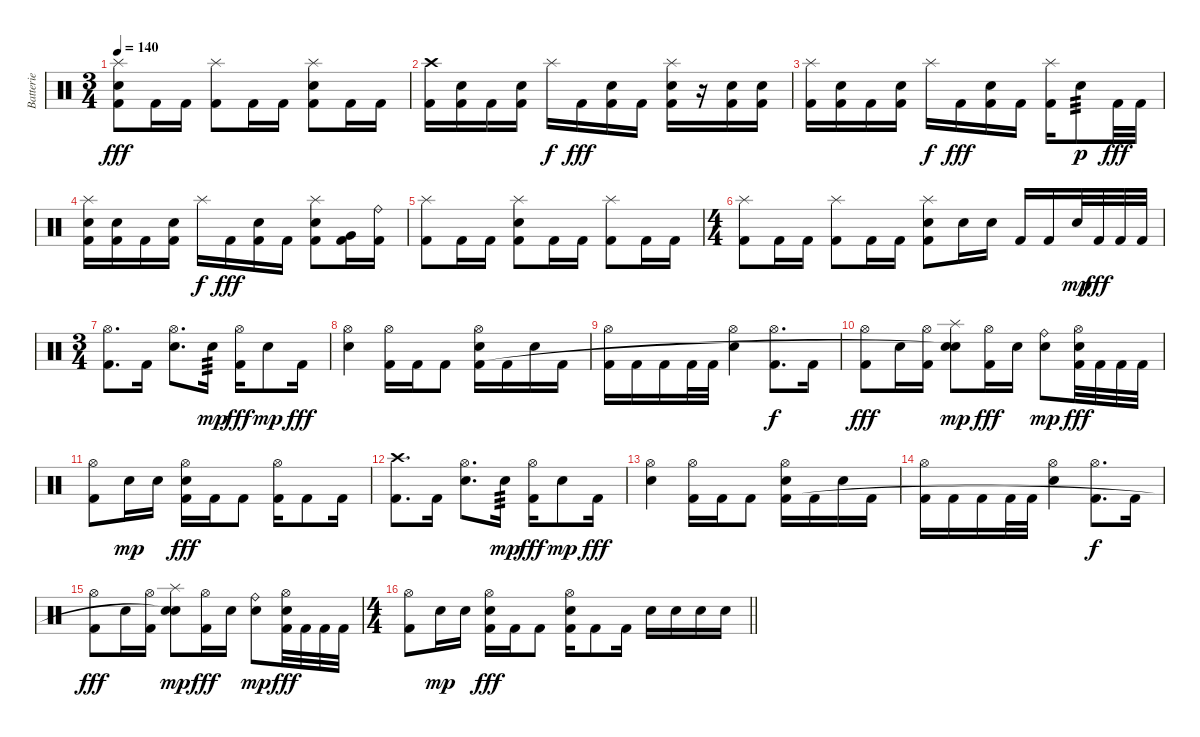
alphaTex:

\track ("Batterie" "Batterie") {instrument percussion}
\staff {score}
\articulation defaults
\ts (3 4)
\tempo 140
\clef neutral
\ks c
("Splash (hit)" "Electric Snare (hit)" "Kick (hit) 2").8{dy fff} "Kick (hit) 2".16 "Kick (hit) 2".16 ("Splash (hit)" "Kick (hit) 2").8 "Kick (hit) 2".16 "Kick (hit) 2".16 ("Splash (hit)" "Electric Snare (hit)" "Kick (hit) 2").8 "Kick (hit) 2".16 "Kick (hit) 2".16 |
("Crash high (hit)" "Kick (hit) 2").16 ("Electric Snare (hit)" "Kick (hit) 2").16 "Kick (hit) 2".16 ("Electric Snare (hit)" "Kick (hit) 2").16 "Splash (hit)".16{dy f} "Kick (hit) 2".16{dy fff} ("Electric Snare (hit)" "Kick (hit) 2").16 "Kick (hit) 2".16 ("Splash (hit)" "Electric Snare (hit)" "Kick (hit) 2").16 r.16 ("Electric Snare (hit)" "Kick (hit) 2").16 ("Electric Snare (hit)" "Kick (hit) 2").16 |
("Splash (hit)" "Kick (hit) 2").16 ("Electric Snare (hit)" "Kick (hit) 2").16 "Kick (hit) 2".16 ("Electric Snare (hit)" "Kick (hit) 2").16 "Splash (hit)".16{dy f} "Kick (hit) 2".16{dy fff} ("Electric Snare (hit)" "Kick (hit) 2").16 "Kick (hit) 2".16 ("Splash (hit)" "Kick (hit) 2").16 "Electric Snare (hit)".8{tp 3 dy p} "Kick (hit) 2".32{dy fff} "Kick (hit) 2".32 |
("Splash (hit)" "Electric Snare (hit)" "Kick (hit) 2").16 ("Electric Snare (hit)" "Kick (hit) 2").16 "Kick (hit) 2".16 ("Electric Snare (hit)" "Kick (hit) 2").16 "Splash (hit)".16{dy f} "Kick (hit) 2".16{dy fff} ("Electric Snare (hit)" "Kick (hit) 2").16 "Kick (hit) 2".16 ("Splash (hit)" "Electric Snare (hit)" "Kick (hit) 2").8 ("Very Low Tom (hit)" "Kick (hit) 2").16 ("Ride (bell)" "Kick (hit) 2").16 |
("Splash (hit)" "Kick (hit) 2").8 "Kick (hit) 2".16 "Kick (hit) 2".16 ("Splash (hit)" "Electric Snare (hit)" "Kick (hit) 2").8 "Kick (hit) 2".16 "Kick (hit) 2".16 ("Splash (hit)" "Kick (hit) 2").8 "Kick (hit) 2".16 "Kick (hit) 2".16 |
\ts (4 4)
("Splash (hit)" "Kick (hit) 2").8 "Kick (hit) 2".16 "Kick (hit) 2".16 ("Splash (hit)" "Kick (hit) 2").8 "Kick (hit) 2".16 "Kick (hit) 2".16 ("Splash (hit)" "Electric Snare (hit)" "Kick (hit) 2").8 "Electric Snare (hit)".16 "Electric Snare (hit)".16 "Kick (hit) 2".16 "Kick (hit) 2".16 "Electric Snare (hit)".32{dy mp} "Kick (hit) 2".32{dy fff} "Kick (hit) 2".32 "Kick (hit) 2".32 |
\ts (3 4)
("Hi-Hat (open)" "Kick (hit) 2").8{d} "Kick (hit) 2".16 ("Hi-Hat (open)" "Electric Snare (hit)").8{d} "Electric Snare (hit)".16{tp 3 dy mp} ("Hi-Hat (open)" "Kick (hit) 2").16{dy fff} "Electric Snare (hit)".8{dy mp} "Kick (hit) 2".16{dy fff} |
("Hi-Hat (open)" "Electric Snare (hit)").4 ("Hi-Hat (open)" "Kick (hit) 2").16 "Kick (hit) 2".16 "Kick (hit) 2".8 ("Hi-Hat (open)" "Electric Snare (hit)" "Kick (hit) 2").16 "Kick (hit) 2".16 "Electric Snare (hit)".16 "Kick (hit) 2".16 |
("Hi-Hat (open)" "Kick (hit) 2").16 "Kick (hit) 2".16 "Kick (hit) 2".16 "Kick (hit) 2".32 "Kick (hit) 2".32 ("Hi-Hat (open)" "Electric Snare (hit)").4 ("Hi-Hat (open)" "Kick (hit) 2").8{d dy f} "Kick (hit) 2".16 |
("Hi-Hat (open)" "Kick (hit) 2").8{dy fff} "Electric Snare (hit)".16 ("Hi-Hat (open)" "Kick (hit) 2").16 ("Splash (hit)" "Electric Snare (hit)" "Snare (hit)"{t}).8{dy mp} ("Hi-Hat (open)" "Kick (hit) 2").16{dy fff} "Electric Snare (hit)".16 ("Ride (bell)" "Electric Snare (hit)").8{dy mp} ("Hi-Hat (open)" "Electric Snare (hit)" "Kick (hit) 2").32{dy fff} "Kick (hit) 2".32 "Kick (hit) 2".32 "Kick (hit) 2".32 |
("Hi-Hat (open)" "Kick (hit) 2").8 "Electric Snare (hit)".16{dy mp} "Electric Snare (hit)".16 ("Hi-Hat (open)" "Electric Snare (hit)" "Kick (hit) 2").16{dy fff} "Kick (hit) 2".16 "Kick (hit) 2".8 ("Hi-Hat (open)" "Kick (hit) 2").16 "Kick (hit) 2".8 "Kick (hit) 2".16 |
("Crash high (hit)" "Kick (hit) 2").8{d} "Kick (hit) 2".16 ("Hi-Hat (open)" "Electric Snare (hit)").8{d} "Electric Snare (hit)".16{tp 3 dy mp} ("Hi-Hat (open)" "Kick (hit) 2").16{dy fff} "Electric Snare (hit)".8{dy mp} "Kick (hit) 2".16{dy fff} |
("Hi-Hat (open)" "Electric Snare (hit)").4 ("Hi-Hat (open)" "Kick (hit) 2").16 "Kick (hit) 2".16 "Kick (hit) 2".8 ("Hi-Hat (open)" "Electric Snare (hit)" "Kick (hit) 2").16 "Kick (hit) 2".16 "Electric Snare (hit)".16 "Kick (hit) 2".16 |
("Hi-Hat (open)" "Kick (hit) 2").16 "Kick (hit) 2".16 "Kick (hit) 2".16 "Kick (hit) 2".32 "Kick (hit) 2".32 ("Hi-Hat (open)" "Electric Snare (hit)").4 ("Hi-Hat (open)" "Kick (hit) 2").8{d dy f} "Kick (hit) 2".16 |
("Hi-Hat (open)" "Kick (hit) 2").8{dy fff} "Electric Snare (hit)".16 ("Hi-Hat (open)" "Kick (hit) 2").16 ("Splash (hit)" "Electric Snare (hit)" "Snare (hit)"{t}).8{dy mp} ("Hi-Hat (open)" "Kick (hit) 2").16{dy fff} "Electric Snare (hit)".16 ("Ride (bell)" "Electric Snare (hit)").8{dy mp} ("Hi-Hat (open)" "Electric Snare (hit)" "Kick (hit) 2").32{dy fff} "Kick (hit) 2".32 "Kick (hit) 2".32 "Kick (hit) 2".32 |
\ts (4 4)
\barLineRight lightlight
("Hi-Hat (open)" "Kick (hit) 2").8 "Electric Snare (hit)".16{dy mp} "Electric Snare (hit)".16 ("Hi-Hat (open)" "Electric Snare (hit)" "Kick (hit) 2").16{dy fff} "Kick (hit) 2".16 "Kick (hit) 2".8 ("Hi-Hat (open)" "Electric Snare (hit)" "Kick (hit) 2").16 "Kick (hit) 2".8 "Kick (hit) 2".16 "Electric Snare (hit)".16 "Electric Snare (hit)".16 "Electric Snare (hit)".16 "Electric Snare (hit)".16
